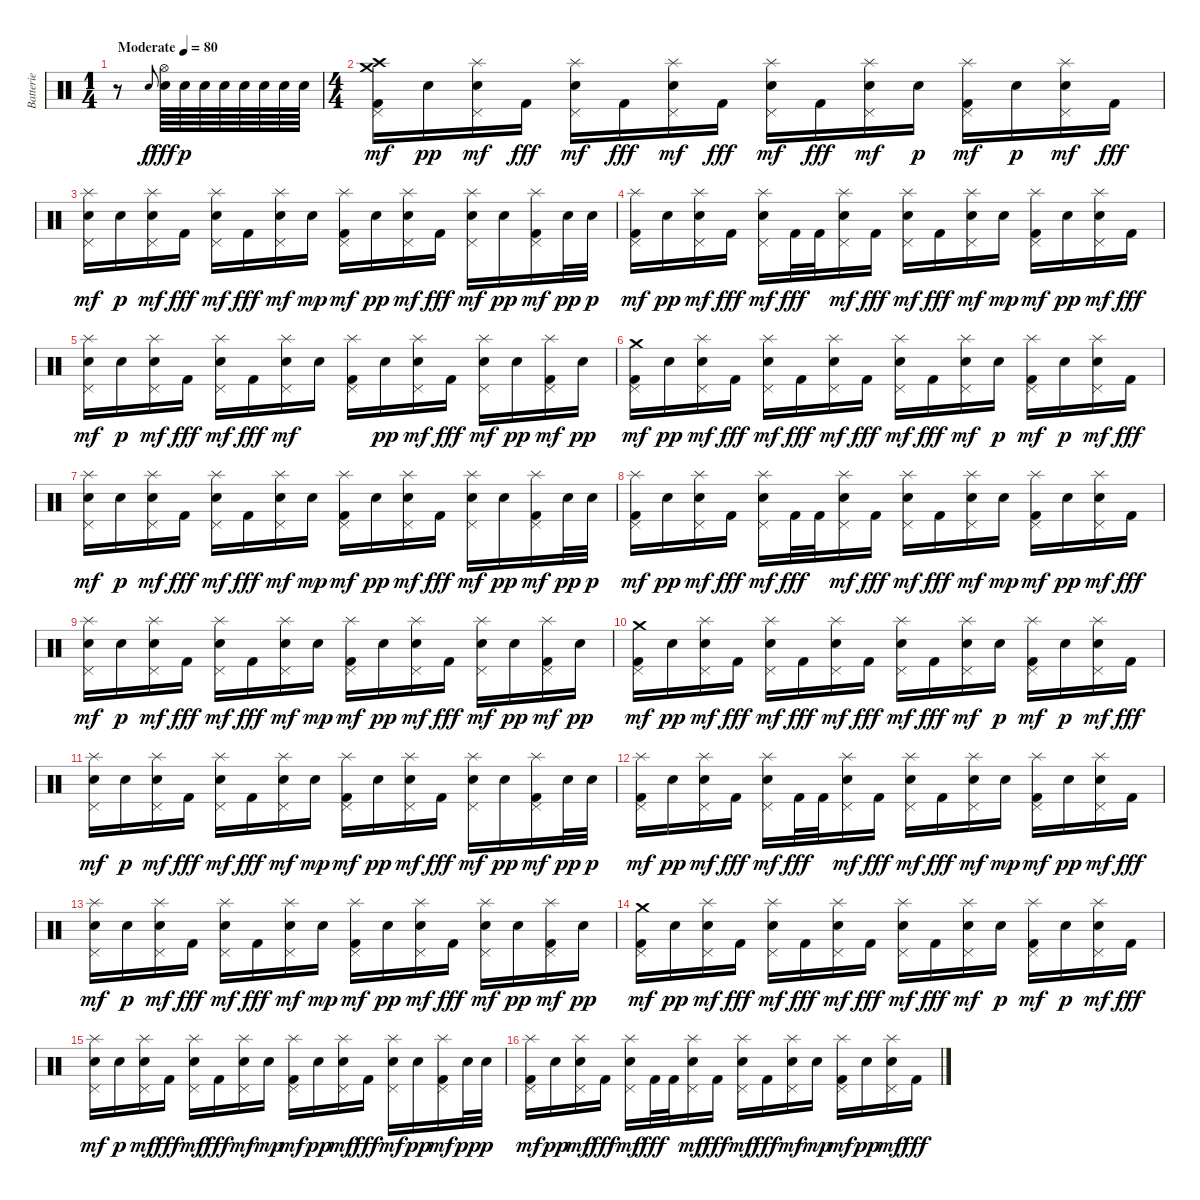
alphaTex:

\track ("Batterie" "Batterie") {instrument percussion}
\staff {score}
\articulation defaults
\ts (1 4)
\tempo (80 "Moderate")
\clef neutral
\ks c
r.8{dy f} "Electric Snare (hit)"{h}.8{gr onbeat} ("Hi-Hat (open)" "Electric Snare (hit)").64{dy fff} "Electric Snare (hit)".64{dy p} "Electric Snare (hit)".64 "Electric Snare (hit)".64 "Electric Snare (hit)".64 "Electric Snare (hit)".64 "Electric Snare (hit)".64 "Electric Snare (hit)".64 |
\ts (4 4)
("Crash high (hit)" "Crash medium (hit)" "Kick (hit) 2" "Pedal Hi-Hat (hit)").16{dy mf} "Electric Snare (hit)".16{dy pp} ("Splash (hit)" "Electric Snare (hit)" "Pedal Hi-Hat (hit)").16{dy mf} "Kick (hit) 2".16{dy fff} ("Splash (hit)" "Electric Snare (hit)" "Pedal Hi-Hat (hit)").16{dy mf} "Kick (hit) 2".16{dy fff} ("Splash (hit)" "Electric Snare (hit)" "Pedal Hi-Hat (hit)").16{dy mf} "Kick (hit) 2".16{dy fff} ("Splash (hit)" "Electric Snare (hit)" "Pedal Hi-Hat (hit)").16{dy mf} "Kick (hit) 2".16{dy fff} ("Splash (hit)" "Electric Snare (hit)" "Pedal Hi-Hat (hit)").16{dy mf} "Electric Snare (hit)".16{dy p} ("Splash (hit)" "Kick (hit) 2" "Pedal Hi-Hat (hit)").16{dy mf} "Electric Snare (hit)".16{dy p} ("Splash (hit)" "Electric Snare (hit)" "Pedal Hi-Hat (hit)").16{dy mf} "Kick (hit) 2".16{dy fff} |
("Splash (hit)" "Electric Snare (hit)" "Pedal Hi-Hat (hit)").16{dy mf} "Electric Snare (hit)".16{dy p} ("Splash (hit)" "Electric Snare (hit)" "Pedal Hi-Hat (hit)").16{dy mf} "Kick (hit) 2".16{dy fff} ("Splash (hit)" "Electric Snare (hit)" "Pedal Hi-Hat (hit)").16{dy mf} "Kick (hit) 2".16{dy fff} ("Splash (hit)" "Electric Snare (hit)" "Pedal Hi-Hat (hit)").16{dy mf} "Electric Snare (hit)".16{dy mp} ("Splash (hit)" "Kick (hit) 2" "Pedal Hi-Hat (hit)").16{dy mf} "Electric Snare (hit)".16{dy pp} ("Splash (hit)" "Electric Snare (hit)" "Pedal Hi-Hat (hit)").16{dy mf} "Kick (hit) 2".16{dy fff} ("Splash (hit)" "Electric Snare (hit)" "Pedal Hi-Hat (hit)").16{dy mf} "Electric Snare (hit)".16{dy pp} ("Splash (hit)" "Kick (hit) 2" "Pedal Hi-Hat (hit)").16{dy mf} "Electric Snare (hit)".32{dy pp} "Electric Snare (hit)".32{dy p} |
("Splash (hit)" "Kick (hit) 2" "Pedal Hi-Hat (hit)").16{dy mf} "Electric Snare (hit)".16{dy pp} ("Splash (hit)" "Electric Snare (hit)" "Pedal Hi-Hat (hit)").16{dy mf} "Kick (hit) 2".16{dy fff} ("Splash (hit)" "Electric Snare (hit)" "Pedal Hi-Hat (hit)").16{dy mf} "Kick (hit) 2".32{dy fff} "Kick (hit) 2".32 ("Splash (hit)" "Electric Snare (hit)" "Pedal Hi-Hat (hit)").16{dy mf} "Kick (hit) 2".16{dy fff} ("Splash (hit)" "Electric Snare (hit)" "Pedal Hi-Hat (hit)").16{dy mf} "Kick (hit) 2".16{dy fff} ("Splash (hit)" "Electric Snare (hit)" "Pedal Hi-Hat (hit)").16{dy mf} "Electric Snare (hit)".16{dy mp} ("Splash (hit)" "Kick (hit) 2" "Pedal Hi-Hat (hit)").16{dy mf} "Electric Snare (hit)".16{dy pp} ("Splash (hit)" "Electric Snare (hit)" "Pedal Hi-Hat (hit)").16{dy mf} "Kick (hit) 2".16{dy fff} |
("Splash (hit)" "Electric Snare (hit)" "Pedal Hi-Hat (hit)").16{dy mf} "Electric Snare (hit)".16{dy p} ("Splash (hit)" "Electric Snare (hit)" "Pedal Hi-Hat (hit)").16{dy mf} "Kick (hit) 2".16{dy fff} ("Splash (hit)" "Electric Snare (hit)" "Pedal Hi-Hat (hit)").16{dy mf} "Kick (hit) 2".16{dy fff} ("Splash (hit)" "Electric Snare (hit)" "Pedal Hi-Hat (hit)").16{dy mf} "Electric Snare (hit)".16 ("Splash (hit)" "Kick (hit) 2" "Pedal Hi-Hat (hit)").16 "Electric Snare (hit)".16{dy pp} ("Splash (hit)" "Electric Snare (hit)" "Pedal Hi-Hat (hit)").16{dy mf} "Kick (hit) 2".16{dy fff} ("Splash (hit)" "Electric Snare (hit)" "Pedal Hi-Hat (hit)").16{dy mf} "Electric Snare (hit)".16{dy pp} ("Splash (hit)" "Kick (hit) 2" "Pedal Hi-Hat (hit)").16{dy mf} "Electric Snare (hit)".16{dy pp} |
("Crash medium (hit)" "Kick (hit) 2" "Pedal Hi-Hat (hit)").16{dy mf} "Electric Snare (hit)".16{dy pp} ("Splash (hit)" "Electric Snare (hit)" "Pedal Hi-Hat (hit)").16{dy mf} "Kick (hit) 2".16{dy fff} ("Splash (hit)" "Electric Snare (hit)" "Pedal Hi-Hat (hit)").16{dy mf} "Kick (hit) 2".16{dy fff} ("Splash (hit)" "Electric Snare (hit)" "Pedal Hi-Hat (hit)").16{dy mf} "Kick (hit) 2".16{dy fff} ("Splash (hit)" "Electric Snare (hit)" "Pedal Hi-Hat (hit)").16{dy mf} "Kick (hit) 2".16{dy fff} ("Splash (hit)" "Electric Snare (hit)" "Pedal Hi-Hat (hit)").16{dy mf} "Electric Snare (hit)".16{dy p} ("Splash (hit)" "Kick (hit) 2" "Pedal Hi-Hat (hit)").16{dy mf} "Electric Snare (hit)".16{dy p} ("Splash (hit)" "Electric Snare (hit)" "Pedal Hi-Hat (hit)").16{dy mf} "Kick (hit) 2".16{dy fff} |
("Splash (hit)" "Electric Snare (hit)" "Pedal Hi-Hat (hit)").16{dy mf} "Electric Snare (hit)".16{dy p} ("Splash (hit)" "Electric Snare (hit)" "Pedal Hi-Hat (hit)").16{dy mf} "Kick (hit) 2".16{dy fff} ("Splash (hit)" "Electric Snare (hit)" "Pedal Hi-Hat (hit)").16{dy mf} "Kick (hit) 2".16{dy fff} ("Splash (hit)" "Electric Snare (hit)" "Pedal Hi-Hat (hit)").16{dy mf} "Electric Snare (hit)".16{dy mp} ("Splash (hit)" "Kick (hit) 2" "Pedal Hi-Hat (hit)").16{dy mf} "Electric Snare (hit)".16{dy pp} ("Splash (hit)" "Electric Snare (hit)" "Pedal Hi-Hat (hit)").16{dy mf} "Kick (hit) 2".16{dy fff} ("Splash (hit)" "Electric Snare (hit)" "Pedal Hi-Hat (hit)").16{dy mf} "Electric Snare (hit)".16{dy pp} ("Splash (hit)" "Kick (hit) 2" "Pedal Hi-Hat (hit)").16{dy mf} "Electric Snare (hit)".32{dy pp} "Electric Snare (hit)".32{dy p} |
("Splash (hit)" "Kick (hit) 2" "Pedal Hi-Hat (hit)").16{dy mf} "Electric Snare (hit)".16{dy pp} ("Splash (hit)" "Electric Snare (hit)" "Pedal Hi-Hat (hit)").16{dy mf} "Kick (hit) 2".16{dy fff} ("Splash (hit)" "Electric Snare (hit)" "Pedal Hi-Hat (hit)").16{dy mf} "Kick (hit) 2".32{dy fff} "Kick (hit) 2".32 ("Splash (hit)" "Electric Snare (hit)" "Pedal Hi-Hat (hit)").16{dy mf} "Kick (hit) 2".16{dy fff} ("Splash (hit)" "Electric Snare (hit)" "Pedal Hi-Hat (hit)").16{dy mf} "Kick (hit) 2".16{dy fff} ("Splash (hit)" "Electric Snare (hit)" "Pedal Hi-Hat (hit)").16{dy mf} "Electric Snare (hit)".16{dy mp} ("Splash (hit)" "Kick (hit) 2" "Pedal Hi-Hat (hit)").16{dy mf} "Electric Snare (hit)".16{dy pp} ("Splash (hit)" "Electric Snare (hit)" "Pedal Hi-Hat (hit)").16{dy mf} "Kick (hit) 2".16{dy fff} |
("Splash (hit)" "Electric Snare (hit)" "Pedal Hi-Hat (hit)").16{dy mf} "Electric Snare (hit)".16{dy p} ("Splash (hit)" "Electric Snare (hit)" "Pedal Hi-Hat (hit)").16{dy mf} "Kick (hit) 2".16{dy fff} ("Splash (hit)" "Electric Snare (hit)" "Pedal Hi-Hat (hit)").16{dy mf} "Kick (hit) 2".16{dy fff} ("Splash (hit)" "Electric Snare (hit)" "Pedal Hi-Hat (hit)").16{dy mf} "Electric Snare (hit)".16{dy mp} ("Splash (hit)" "Kick (hit) 2" "Pedal Hi-Hat (hit)").16{dy mf} "Electric Snare (hit)".16{dy pp} ("Splash (hit)" "Electric Snare (hit)" "Pedal Hi-Hat (hit)").16{dy mf} "Kick (hit) 2".16{dy fff} ("Splash (hit)" "Electric Snare (hit)" "Pedal Hi-Hat (hit)").16{dy mf} "Electric Snare (hit)".16{dy pp} ("Splash (hit)" "Kick (hit) 2" "Pedal Hi-Hat (hit)").16{dy mf} "Electric Snare (hit)".16{dy pp} |
("Crash medium (hit)" "Kick (hit) 2" "Pedal Hi-Hat (hit)").16{dy mf} "Electric Snare (hit)".16{dy pp} ("Splash (hit)" "Electric Snare (hit)" "Pedal Hi-Hat (hit)").16{dy mf} "Kick (hit) 2".16{dy fff} ("Splash (hit)" "Electric Snare (hit)" "Pedal Hi-Hat (hit)").16{dy mf} "Kick (hit) 2".16{dy fff} ("Splash (hit)" "Electric Snare (hit)" "Pedal Hi-Hat (hit)").16{dy mf} "Kick (hit) 2".16{dy fff} ("Splash (hit)" "Electric Snare (hit)" "Pedal Hi-Hat (hit)").16{dy mf} "Kick (hit) 2".16{dy fff} ("Splash (hit)" "Electric Snare (hit)" "Pedal Hi-Hat (hit)").16{dy mf} "Electric Snare (hit)".16{dy p} ("Splash (hit)" "Kick (hit) 2" "Pedal Hi-Hat (hit)").16{dy mf} "Electric Snare (hit)".16{dy p} ("Splash (hit)" "Electric Snare (hit)" "Pedal Hi-Hat (hit)").16{dy mf} "Kick (hit) 2".16{dy fff} |
("Splash (hit)" "Electric Snare (hit)" "Pedal Hi-Hat (hit)").16{dy mf} "Electric Snare (hit)".16{dy p} ("Splash (hit)" "Electric Snare (hit)" "Pedal Hi-Hat (hit)").16{dy mf} "Kick (hit) 2".16{dy fff} ("Splash (hit)" "Electric Snare (hit)" "Pedal Hi-Hat (hit)").16{dy mf} "Kick (hit) 2".16{dy fff} ("Splash (hit)" "Electric Snare (hit)" "Pedal Hi-Hat (hit)").16{dy mf} "Electric Snare (hit)".16{dy mp} ("Splash (hit)" "Kick (hit) 2" "Pedal Hi-Hat (hit)").16{dy mf} "Electric Snare (hit)".16{dy pp} ("Splash (hit)" "Electric Snare (hit)" "Pedal Hi-Hat (hit)").16{dy mf} "Kick (hit) 2".16{dy fff} ("Splash (hit)" "Electric Snare (hit)" "Pedal Hi-Hat (hit)").16{dy mf} "Electric Snare (hit)".16{dy pp} ("Splash (hit)" "Kick (hit) 2" "Pedal Hi-Hat (hit)").16{dy mf} "Electric Snare (hit)".32{dy pp} "Electric Snare (hit)".32{dy p} |
("Splash (hit)" "Kick (hit) 2" "Pedal Hi-Hat (hit)").16{dy mf} "Electric Snare (hit)".16{dy pp} ("Splash (hit)" "Electric Snare (hit)" "Pedal Hi-Hat (hit)").16{dy mf} "Kick (hit) 2".16{dy fff} ("Splash (hit)" "Electric Snare (hit)" "Pedal Hi-Hat (hit)").16{dy mf} "Kick (hit) 2".32{dy fff} "Kick (hit) 2".32 ("Splash (hit)" "Electric Snare (hit)" "Pedal Hi-Hat (hit)").16{dy mf} "Kick (hit) 2".16{dy fff} ("Splash (hit)" "Electric Snare (hit)" "Pedal Hi-Hat (hit)").16{dy mf} "Kick (hit) 2".16{dy fff} ("Splash (hit)" "Electric Snare (hit)" "Pedal Hi-Hat (hit)").16{dy mf} "Electric Snare (hit)".16{dy mp} ("Splash (hit)" "Kick (hit) 2" "Pedal Hi-Hat (hit)").16{dy mf} "Electric Snare (hit)".16{dy pp} ("Splash (hit)" "Electric Snare (hit)" "Pedal Hi-Hat (hit)").16{dy mf} "Kick (hit) 2".16{dy fff} |
("Splash (hit)" "Electric Snare (hit)" "Pedal Hi-Hat (hit)").16{dy mf} "Electric Snare (hit)".16{dy p} ("Splash (hit)" "Electric Snare (hit)" "Pedal Hi-Hat (hit)").16{dy mf} "Kick (hit) 2".16{dy fff} ("Splash (hit)" "Electric Snare (hit)" "Pedal Hi-Hat (hit)").16{dy mf} "Kick (hit) 2".16{dy fff} ("Splash (hit)" "Electric Snare (hit)" "Pedal Hi-Hat (hit)").16{dy mf} "Electric Snare (hit)".16{dy mp} ("Splash (hit)" "Kick (hit) 2" "Pedal Hi-Hat (hit)").16{dy mf} "Electric Snare (hit)".16{dy pp} ("Splash (hit)" "Electric Snare (hit)" "Pedal Hi-Hat (hit)").16{dy mf} "Kick (hit) 2".16{dy fff} ("Splash (hit)" "Electric Snare (hit)" "Pedal Hi-Hat (hit)").16{dy mf} "Electric Snare (hit)".16{dy pp} ("Splash (hit)" "Kick (hit) 2" "Pedal Hi-Hat (hit)").16{dy mf} "Electric Snare (hit)".16{dy pp} |
("Crash medium (hit)" "Kick (hit) 2" "Pedal Hi-Hat (hit)").16{dy mf} "Electric Snare (hit)".16{dy pp} ("Splash (hit)" "Electric Snare (hit)" "Pedal Hi-Hat (hit)").16{dy mf} "Kick (hit) 2".16{dy fff} ("Splash (hit)" "Electric Snare (hit)" "Pedal Hi-Hat (hit)").16{dy mf} "Kick (hit) 2".16{dy fff} ("Splash (hit)" "Electric Snare (hit)" "Pedal Hi-Hat (hit)").16{dy mf} "Kick (hit) 2".16{dy fff} ("Splash (hit)" "Electric Snare (hit)" "Pedal Hi-Hat (hit)").16{dy mf} "Kick (hit) 2".16{dy fff} ("Splash (hit)" "Electric Snare (hit)" "Pedal Hi-Hat (hit)").16{dy mf} "Electric Snare (hit)".16{dy p} ("Splash (hit)" "Kick (hit) 2" "Pedal Hi-Hat (hit)").16{dy mf} "Electric Snare (hit)".16{dy p} ("Splash (hit)" "Electric Snare (hit)" "Pedal Hi-Hat (hit)").16{dy mf} "Kick (hit) 2".16{dy fff} |
("Splash (hit)" "Electric Snare (hit)" "Pedal Hi-Hat (hit)").16{dy mf} "Electric Snare (hit)".16{dy p} ("Splash (hit)" "Electric Snare (hit)" "Pedal Hi-Hat (hit)").16{dy mf} "Kick (hit) 2".16{dy fff} ("Splash (hit)" "Electric Snare (hit)" "Pedal Hi-Hat (hit)").16{dy mf} "Kick (hit) 2".16{dy fff} ("Splash (hit)" "Electric Snare (hit)" "Pedal Hi-Hat (hit)").16{dy mf} "Electric Snare (hit)".16{dy mp} ("Splash (hit)" "Kick (hit) 2" "Pedal Hi-Hat (hit)").16{dy mf} "Electric Snare (hit)".16{dy pp} ("Splash (hit)" "Electric Snare (hit)" "Pedal Hi-Hat (hit)").16{dy mf} "Kick (hit) 2".16{dy fff} ("Splash (hit)" "Electric Snare (hit)" "Pedal Hi-Hat (hit)").16{dy mf} "Electric Snare (hit)".16{dy pp} ("Splash (hit)" "Kick (hit) 2" "Pedal Hi-Hat (hit)").16{dy mf} "Electric Snare (hit)".32{dy pp} "Electric Snare (hit)".32{dy p} |
("Splash (hit)" "Kick (hit) 2" "Pedal Hi-Hat (hit)").16{dy mf} "Electric Snare (hit)".16{dy pp} ("Splash (hit)" "Electric Snare (hit)" "Pedal Hi-Hat (hit)").16{dy mf} "Kick (hit) 2".16{dy fff} ("Splash (hit)" "Electric Snare (hit)" "Pedal Hi-Hat (hit)").16{dy mf} "Kick (hit) 2".32{dy fff} "Kick (hit) 2".32 ("Splash (hit)" "Electric Snare (hit)" "Pedal Hi-Hat (hit)").16{dy mf} "Kick (hit) 2".16{dy fff} ("Splash (hit)" "Electric Snare (hit)" "Pedal Hi-Hat (hit)").16{dy mf} "Kick (hit) 2".16{dy fff} ("Splash (hit)" "Electric Snare (hit)" "Pedal Hi-Hat (hit)").16{dy mf} "Electric Snare (hit)".16{dy mp} ("Splash (hit)" "Kick (hit) 2" "Pedal Hi-Hat (hit)").16{dy mf} "Electric Snare (hit)".16{dy pp} ("Splash (hit)" "Electric Snare (hit)" "Pedal Hi-Hat (hit)").16{dy mf} "Kick (hit) 2".16{dy fff}
